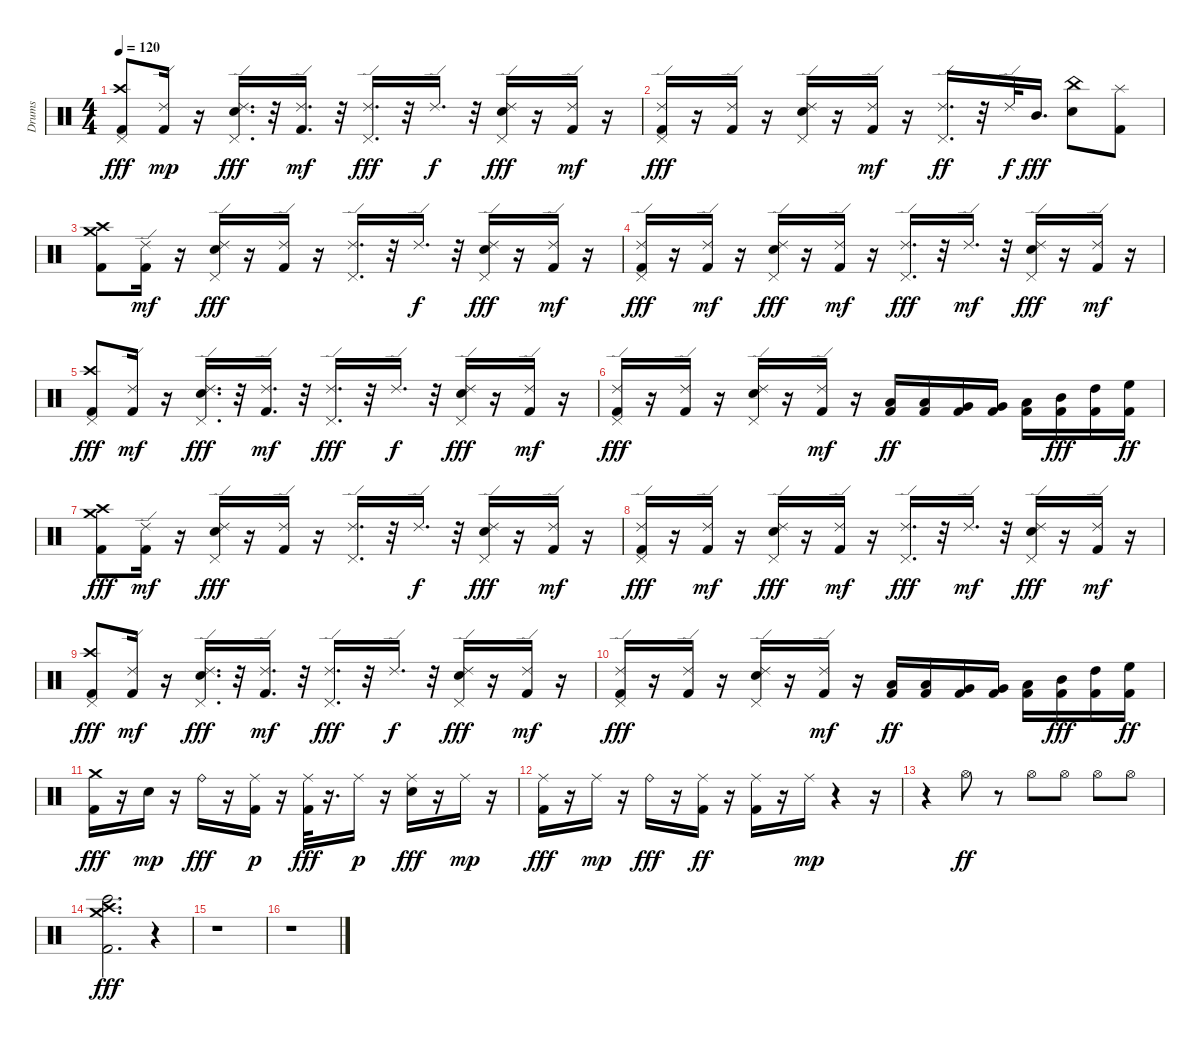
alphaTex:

\track ("Drums" "Drums") {instrument percussion}
\staff {score}
\articulation defaults
\ts (4 4)
\tempo 120
\clef neutral
\ks c
("Pedal Hi-Hat (hit)" "Crash high (hit)" "Kick (hit) 2").8{dy fff} ("Kick (hit) 2" "Ride (edge) 2").16{dy mp} r.16 ("Snare (hit) 2" "Ride (edge) 2" "Pedal Hi-Hat (hit)").16{d dy fff} r.32 ("Kick (hit) 2" "Ride (edge) 2").16{d dy mf} r.32 ("Pedal Hi-Hat (hit)" "Ride (edge) 2").16{d dy fff} r.32 "Ride (edge) 2".16{d dy f} r.32 ("Pedal Hi-Hat (hit)" "Snare (hit) 2" "Ride (edge) 2").16{dy fff} r.16 ("Kick (hit) 2" "Ride (edge) 2").16{dy mf} r.16 |
("Ride (edge) 2" "Pedal Hi-Hat (hit)" "Kick (hit) 2").16{dy fff} r.16 ("Ride (edge) 2" "Kick (hit) 2").16 r.16 ("Snare (hit) 2" "Pedal Hi-Hat (hit)" "Ride (edge) 2").16 r.16 ("Kick (hit) 2" "Ride (edge) 2").16{dy mf} r.16 ("Pedal Hi-Hat (hit)" "Ride (edge) 2").16{d dy ff} r.32 "Ride (edge) 2".32{dy f} "Mid Tom (hit)".16{d dy fff} ("Snare (hit) 2" "China (hit)").8 ("Splash (hit)" "Kick (hit) 2").8 |
("Crash high (hit)" "Kick (hit) 2" "Crash medium (hit)").8 ("Kick (hit) 2" "Ride (edge) 2").16{dy mf} r.16 ("Snare (hit) 2" "Pedal Hi-Hat (hit)" "Ride (edge) 2").16{dy fff} r.16 ("Kick (hit) 2" "Ride (edge) 2").16 r.16 ("Pedal Hi-Hat (hit)" "Ride (edge) 2").16{d} r.32 "Ride (edge) 2".16{d dy f} r.32 ("Pedal Hi-Hat (hit)" "Ride (edge) 2" "Snare (hit) 2").16{dy fff} r.16 ("Kick (hit) 2" "Ride (edge) 2").16{dy mf} r.16 |
("Ride (edge) 2" "Kick (hit) 2" "Pedal Hi-Hat (hit)").16{dy fff} r.16 ("Kick (hit) 2" "Ride (edge) 2").16{dy mf} r.16 ("Ride (edge) 2" "Pedal Hi-Hat (hit)" "Snare (hit) 2").16{dy fff} r.16 ("Kick (hit) 2" "Ride (edge) 2").16{dy mf} r.16 ("Pedal Hi-Hat (hit)" "Ride (edge) 2").16{d dy fff} r.32 "Ride (edge) 2".16{d dy mf} r.32 ("Pedal Hi-Hat (hit)" "Ride (edge) 2" "Snare (hit) 2").16{dy fff} r.16 ("Kick (hit) 2" "Ride (edge) 2").16{dy mf} r.16 |
("Kick (hit) 2" "Crash high (hit)" "Pedal Hi-Hat (hit)").8{dy fff} ("Kick (hit) 2" "Ride (edge) 2").16{dy mf} r.16 ("Pedal Hi-Hat (hit)" "Ride (edge) 2" "Snare (hit) 2").16{d dy fff} r.32 ("Kick (hit) 2" "Ride (edge) 2").16{d dy mf} r.32 ("Pedal Hi-Hat (hit)" "Ride (edge) 2").16{d dy fff} r.32 "Ride (edge) 2".16{d dy f} r.32 ("Pedal Hi-Hat (hit)" "Ride (edge) 2" "Snare (hit) 2").16{dy fff} r.16 ("Kick (hit) 2" "Ride (edge) 2").16{dy mf} r.16 |
("Ride (edge) 2" "Kick (hit) 2" "Pedal Hi-Hat (hit)").16{dy fff} r.16 ("Kick (hit) 2" "Ride (edge) 2").16 r.16 ("Ride (edge) 2" "Pedal Hi-Hat (hit)" "Snare (hit) 2").16 r.16 ("Kick (hit) 2" "Ride (edge) 2").16{dy mf} r.16 ("Kick (hit) 2" "Low Floor Tom (hit)").16{dy ff} ("Kick (hit) 2" "Low Floor Tom (hit)").16 ("Very Low Tom (hit)" "Kick (hit) 2").16 ("Kick (hit) 2" "Very Low Tom (hit)").16 ("Kick (hit) 2" "Low Tom (hit)").16 ("Mid Tom (hit)" "Kick (hit) 2").16{dy fff} ("Kick (hit) 2" "High Tom (hit)").16 ("High Floor Tom (hit)" "Kick (hit) 2").16{dy ff} |
("Crash high (hit)" "Kick (hit) 2" "Crash medium (hit)").8{dy fff} ("Kick (hit) 2" "Ride (edge) 2").16{dy mf} r.16 ("Snare (hit) 2" "Pedal Hi-Hat (hit)" "Ride (edge) 2").16{dy fff} r.16 ("Kick (hit) 2" "Ride (edge) 2").16 r.16 ("Pedal Hi-Hat (hit)" "Ride (edge) 2").16{d} r.32 "Ride (edge) 2".16{d dy f} r.32 ("Pedal Hi-Hat (hit)" "Ride (edge) 2" "Snare (hit) 2").16{dy fff} r.16 ("Kick (hit) 2" "Ride (edge) 2").16{dy mf} r.16 |
("Ride (edge) 2" "Kick (hit) 2" "Pedal Hi-Hat (hit)").16{dy fff} r.16 ("Kick (hit) 2" "Ride (edge) 2").16{dy mf} r.16 ("Ride (edge) 2" "Pedal Hi-Hat (hit)" "Snare (hit) 2").16{dy fff} r.16 ("Kick (hit) 2" "Ride (edge) 2").16{dy mf} r.16 ("Pedal Hi-Hat (hit)" "Ride (edge) 2").16{d dy fff} r.32 "Ride (edge) 2".16{d dy mf} r.32 ("Pedal Hi-Hat (hit)" "Ride (edge) 2" "Snare (hit) 2").16{dy fff} r.16 ("Kick (hit) 2" "Ride (edge) 2").16{dy mf} r.16 |
("Kick (hit) 2" "Crash high (hit)" "Pedal Hi-Hat (hit)").8{dy fff} ("Kick (hit) 2" "Ride (edge) 2").16{dy mf} r.16 ("Pedal Hi-Hat (hit)" "Ride (edge) 2" "Snare (hit) 2").16{d dy fff} r.32 ("Kick (hit) 2" "Ride (edge) 2").16{d dy mf} r.32 ("Pedal Hi-Hat (hit)" "Ride (edge) 2").16{d dy fff} r.32 "Ride (edge) 2".16{d dy f} r.32 ("Pedal Hi-Hat (hit)" "Ride (edge) 2" "Snare (hit) 2").16{dy fff} r.16 ("Kick (hit) 2" "Ride (edge) 2").16{dy mf} r.16 |
("Ride (edge) 2" "Kick (hit) 2" "Pedal Hi-Hat (hit)").16{dy fff} r.16 ("Kick (hit) 2" "Ride (edge) 2").16 r.16 ("Ride (edge) 2" "Pedal Hi-Hat (hit)" "Snare (hit) 2").16 r.16 ("Kick (hit) 2" "Ride (edge) 2").16{dy mf} r.16 ("Kick (hit) 2" "Low Floor Tom (hit)").16{dy ff} ("Kick (hit) 2" "Low Floor Tom (hit)").16 ("Very Low Tom (hit)" "Kick (hit) 2").16 ("Kick (hit) 2" "Very Low Tom (hit)").16 ("Kick (hit) 2" "Low Tom (hit)").16 ("Mid Tom (hit)" "Kick (hit) 2").16{dy fff} ("Kick (hit) 2" "High Tom (hit)").16 ("High Floor Tom (hit)" "Kick (hit) 2").16{dy ff} |
("Crash medium (hit)" "Kick (hit) 2").16{dy fff} r.16 "Snare (hit) 2".16{dy mp} r.16 "Ride (bell)".16{dy fff} r.16 ("Kick (hit) 2" "Ride (middle)").16{dy p} r.16 ("Kick (hit) 2" "Ride (middle)").32{dy fff} r.16{d} "Ride (middle)".16{dy p} r.16 ("Snare (hit) 2" "Ride (middle)").16{dy fff} r.16 "Ride (middle)".16{dy mp} r.16 |
("Kick (hit) 2" "Ride (middle)").16{dy fff} r.16 "Ride (middle)".16{dy mp} r.16 "Ride (bell)".16{dy fff} r.16 ("Ride (middle)" "Kick (hit) 2").16{dy ff} r.16 ("Ride (middle)" "Kick (hit) 2").16 r.16 "Ride (middle)".16{dy mp} r.4 r.16 |
r.4 "Hi-Hat (open)".8{dy ff} r.8 "Hi-Hat (open)".8 "Hi-Hat (open)".8 "Hi-Hat (open)".8 "Hi-Hat (open)".8 |
("Crash medium (hit)" "Crash high (hit)" "Bongo High (hit)" "Kick (hit) 2").2{d dy fff} r.4 |
r.1 |
r.1
